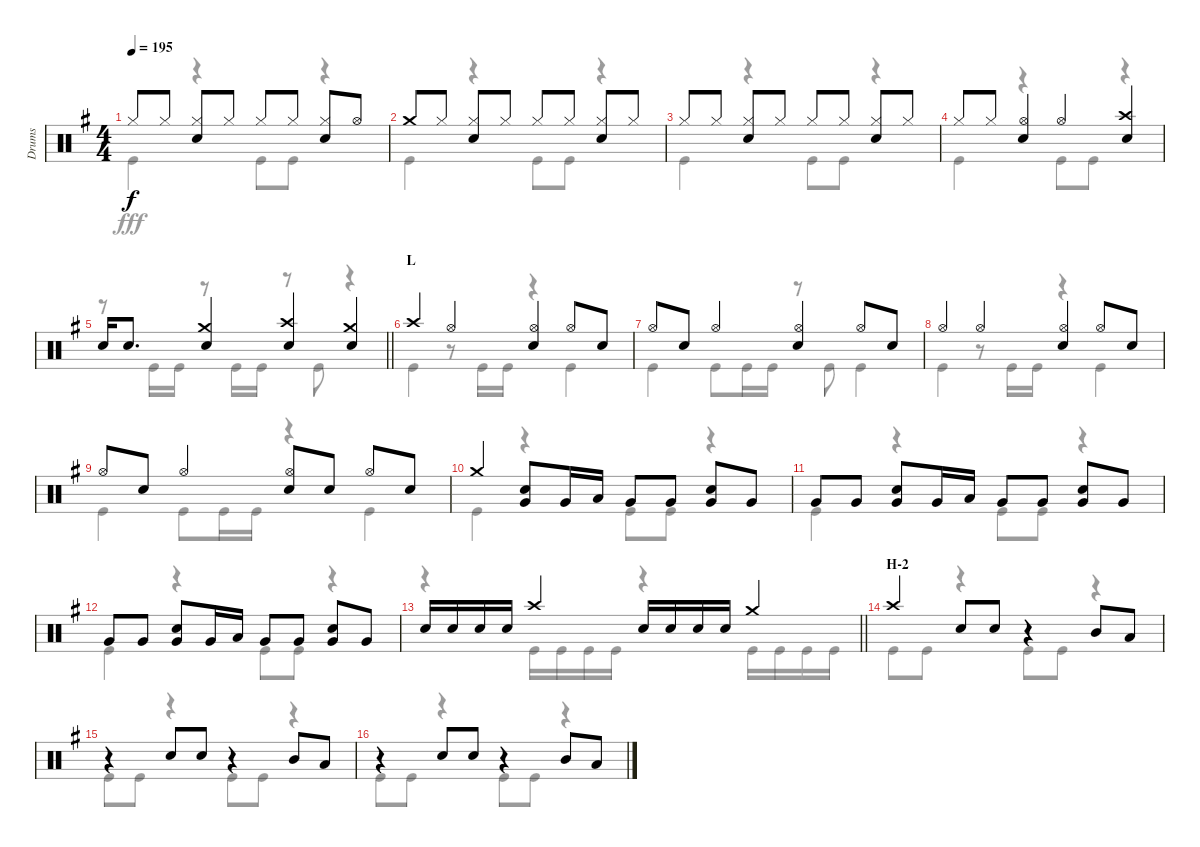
\track ("Drums" "Drums") {instrument percussion}
\staff {score}
\articulation defaults
\voice
\ts (4 4)
\tempo 195
\clef neutral
\ks g "Hi-Hat (closed)".8{dy f} "Hi-Hat (closed)".8
("Hi-Hat (closed)" "Snare (hit) 2").8 "Hi-Hat (closed)".8 "Hi-Hat (closed)".8 "Hi-Hat (closed)".8 ("Hi-Hat (closed)" "Snare (hit) 2").8 "Hi-Hat (open)".8 |
"Crash medium (hit)".8 "Hi-Hat (closed)".8 ("Hi-Hat (closed)" "Snare (hit) 2").8 "Hi-Hat (closed)".8 "Hi-Hat (closed)".8 "Hi-Hat (closed)".8 ("Hi-Hat (closed)" "Snare (hit) 2").8 "Hi-Hat (closed)".8 |
"Hi-Hat (closed)".8 "Hi-Hat (closed)".8 ("Hi-Hat (closed)" "Snare (hit) 2").8 "Hi-Hat (closed)".8 "Hi-Hat (closed)".8 "Hi-Hat (closed)".8 ("Hi-Hat (closed)" "Snare (hit) 2").8 "Hi-Hat (closed)".8 |
"Hi-Hat (closed)".8 "Hi-Hat (closed)".8 ("Hi-Hat (open)" "Snare (hit) 2").4 "Hi-Hat (open)".4 ("Crash high (hit)" "Snare (hit) 2").4 |
\barLineRight lightlight "Snare (hit) 2".16 "Snare (hit) 2".8{d}
("Crash medium (hit)" "Snare (hit) 2").4 ("Crash high (hit)" "Snare (hit) 2").4 ("Crash medium (hit)" "Snare (hit) 2").4 |
\section ("" "L")
"Crash high (hit)".4 "Hi-Hat (open)".4 ("Hi-Hat (open)" "Snare (hit) 2").4 "Hi-Hat (open)".8 "Snare (hit) 2".8 |
"Hi-Hat (open)".8 "Snare (hit) 2".8 "Hi-Hat (open)".4 ("Hi-Hat (open)" "Snare (hit) 2").4 "Hi-Hat (open)".8 "Snare (hit) 2".8 |
"Hi-Hat (open)".4 "Hi-Hat (open)".4 ("Hi-Hat (open)" "Snare (hit) 2").4 "Hi-Hat (open)".8 "Snare (hit) 2".8 |
"Hi-Hat (open)".8 "Snare (hit) 2".8 "Hi-Hat (open)".4 ("Hi-Hat (open)" "Snare (hit) 2").8 "Snare (hit) 2".8 "Hi-Hat (open)".8 "Snare (hit) 2".8 |
"Crash medium (hit)".4 ("Snare (hit) 2" "Very Low Tom (hit)").8 "Very Low Tom (hit)".16 "Low Tom (hit)".16 "Very Low Tom (hit)".8 "Very Low Tom (hit)".8 ("Snare (hit) 2" "Very Low Tom (hit)").8 "Very Low Tom (hit)".8 |
"Very Low Tom (hit)".8 "Very Low Tom (hit)".8 ("Snare (hit) 2" "Very Low Tom (hit)").8 "Very Low Tom (hit)".16 "Low Tom (hit)".16 "Very Low Tom (hit)".8 "Very Low Tom (hit)".8 ("Snare (hit) 2" "Very Low Tom (hit)").8 "Very Low Tom (hit)".8 |
"Very Low Tom (hit)".8 "Very Low Tom (hit)".8 ("Snare (hit) 2" "Very Low Tom (hit)").8 "Very Low Tom (hit)".16 "Low Tom (hit)".16 "Very Low Tom (hit)".8 "Very Low Tom (hit)".8 ("Snare (hit) 2" "Very Low Tom (hit)").8 "Very Low Tom (hit)".8 |
\barLineRight lightlight "Snare (hit) 2".16 "Snare (hit) 2".16 "Snare (hit) 2".16 "Snare (hit) 2".16 "Crash high (hit)".4 "Snare (hit) 2".16 "Snare (hit) 2".16 "Snare (hit) 2".16 "Snare (hit) 2".16 "Crash medium (hit)".4
|
\section ("" "H-2")
"Crash high (hit)".4 "Snare (hit) 2".8 "Snare (hit) 2".8 r.4 "Mid Tom (hit)".8 "Low Tom (hit)".8 |
r.4 "Snare (hit) 2".8 "Snare (hit) 2".8 r.4 "Mid Tom (hit)".8 "Low Tom (hit)".8 |
r.4 "Snare (hit) 2".8 "Snare (hit) 2".8 r.4 "Mid Tom (hit)".8 "Low Tom (hit)".8
\voice
\clef neutral
\ottava regular
\simile none
\ks g "Kick (hit)".4{dy fff}
r.4 "Kick (hit)".8 "Kick (hit)".8 r.4 |
"Kick (hit)".4 r.4 "Kick (hit)".8 "Kick (hit)".8 r.4 |
"Kick (hit)".4 r.4 "Kick (hit)".8 "Kick (hit)".8 r.4 |
"Kick (hit)".4 r.4 "Kick (hit)".8 "Kick (hit)".8 r.4 |
\barLineRight lightlight
r.8 "Kick (hit)".16 "Kick (hit)".16 r.8 "Kick (hit)".16 "Kick (hit)".16 r.8 "Kick (hit)".8 r.4 |
"Kick (hit)".4 r.8 "Kick (hit)".16 "Kick (hit)".16 r.4 "Kick (hit)".4 |
"Kick (hit)".4 "Kick (hit)".8 "Kick (hit)".16 "Kick (hit)".16 r.8 "Kick (hit)".8 "Kick (hit)".4 |
"Kick (hit)".4 r.8 "Kick (hit)".16 "Kick (hit)".16 r.4 "Kick (hit)".4 |
"Kick (hit)".4 "Kick (hit)".8 "Kick (hit)".16 "Kick (hit)".16 r.4 "Kick (hit)".4 |
"Kick (hit)".4 r.4 "Kick (hit)".8 "Kick (hit)".8 r.4 |
"Kick (hit)".4 r.4 "Kick (hit)".8 "Kick (hit)".8 r.4 |
"Kick (hit)".4 r.4 "Kick (hit)".8 "Kick (hit)".8 r.4 |
\barLineRight lightlight
r.4 "Kick (hit)".16 "Kick (hit)".16 "Kick (hit)".16 "Kick (hit)".16 r.4 "Kick (hit)".16 "Kick (hit)".16 "Kick (hit)".16 "Kick (hit)".16 |
"Kick (hit)".8 "Kick (hit)".8 r.4 "Kick (hit)".8 "Kick (hit)".8 r.4 |
"Kick (hit)".8 "Kick (hit)".8 r.4 "Kick (hit)".8 "Kick (hit)".8 r.4 |
"Kick (hit)".8 "Kick (hit)".8 r.4 "Kick (hit)".8 "Kick (hit)".8 r.4
